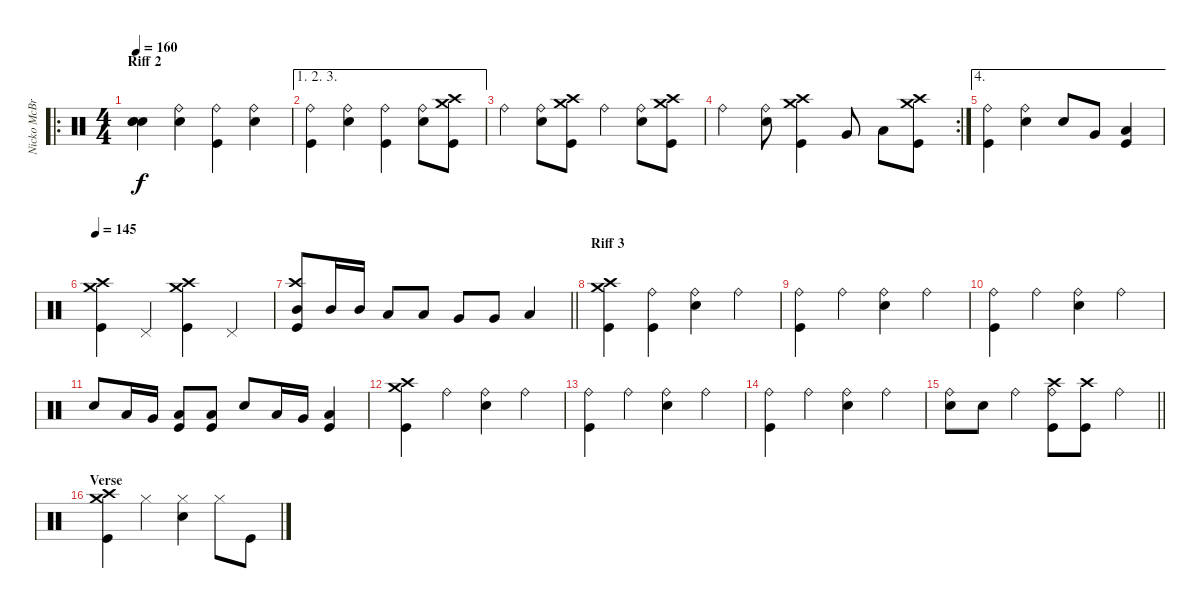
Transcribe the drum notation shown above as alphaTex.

\track ("Nicko McBrain" "Nicko McBr") {instrument percussion}
\staff {score}
\articulation defaults
\ro
\ts (4 4)
\section ("" "Riff 2")
\tempo 160
\clef neutral
\ks c
("Snare (hit)"{t} "Snare (hit)"{t} "Snare (hit)"{t}).4{dy f} ("Ride (bell)" "Snare (hit) 2").4 ("Ride (bell)" "Kick (hit)").4 ("Ride (bell)" "Snare (hit) 2").4 |
\ae (1 2 3)
("Ride (bell)" "Kick (hit)").4 ("Ride (bell)" "Snare (hit) 2").4 ("Ride (bell)" "Kick (hit)").4 ("Ride (bell)" "Snare (hit) 2").8 ("Crash medium (hit)" "Crash high (hit)" "Kick (hit)").8 |
"Ride (bell)".4 ("Ride (bell)" "Snare (hit) 2").8 ("Crash medium (hit)" "Crash high (hit)" "Kick (hit)").8 "Ride (bell)".4 ("Ride (bell)" "Snare (hit) 2").8 ("Crash medium (hit)" "Crash high (hit)" "Kick (hit)").8 |
\rc 2 "Ride (bell)".4
("Ride (bell)" "Snare (hit) 2").8 ("Crash medium (hit)" "Crash high (hit)" "Kick (hit)").4 "Very Low Tom (hit)".8 "Low Floor Tom (hit)".8 ("Crash medium (hit)" "Crash high (hit)" "Kick (hit)").8 |
\ae 4
("Ride (bell)" "Kick (hit)").4 ("Ride (bell)" "Snare (hit) 2").4 "Snare (hit) 2".8 "Very Low Tom (hit)".8 ("Low Floor Tom (hit)" "Kick (hit)").4 |
\tempo 145
("Crash medium (hit)" "Crash high (hit)" "Kick (hit)").4 "Pedal Hi-Hat (hit)".4 ("Crash medium (hit)" "Crash high (hit)" "Kick (hit)").4 "Pedal Hi-Hat (hit)".4 |
\barLineRight lightlight
("Mid Tom (hit)" "Crash high (hit)" "Kick (hit)").8 "Mid Tom (hit)".16 "Mid Tom (hit)".16 "Low Tom (hit)".8 "Low Tom (hit)".8 "Very Low Tom (hit)".8 "Very Low Tom (hit)".8 "Low Floor Tom (hit)".4 |
\section ("" "Riff 3")
("Crash medium (hit)" "Crash high (hit)" "Kick (hit)").4 ("Ride (bell)" "Kick (hit)").4 ("Ride (bell)" "Snare (hit) 2").4 "Ride (bell)".4 |
("Ride (bell)" "Kick (hit)").4 "Ride (bell)".4 ("Ride (bell)" "Snare (hit) 2").4 "Ride (bell)".4 |
("Ride (bell)" "Kick (hit)").4 "Ride (bell)".4 ("Ride (bell)" "Snare (hit) 2").4 "Ride (bell)".4 |
"Snare (hit) 2".8 "Low Tom (hit)".16 "Very Low Tom (hit)".16 ("Low Floor Tom (hit)" "Kick (hit)").8 ("Low Floor Tom (hit)" "Kick (hit)").8 "Snare (hit) 2".8 "Low Tom (hit)".16 "Very Low Tom (hit)".16 ("Low Floor Tom (hit)" "Kick (hit)").4 |
("Crash medium (hit)" "Crash high (hit)" "Kick (hit)").4 "Ride (bell)".4 ("Ride (bell)" "Snare (hit) 2").4 "Ride (bell)".4 |
("Ride (bell)" "Kick (hit)").4 "Ride (bell)".4 ("Ride (bell)" "Snare (hit) 2").4 "Ride (bell)".4 |
("Ride (bell)" "Kick (hit)").4 "Ride (bell)".4 ("Ride (bell)" "Snare (hit) 2").4 "Ride (bell)".4 |
\barLineRight lightlight
("Ride (bell)" "Snare (hit) 2").8 "Snare (hit) 2".8 "Ride (bell)".4 ("Ride (bell)" "Crash high (hit)" "Kick (hit)").8 ("Crash high (hit)" "Kick (hit)").8 "Ride (bell)".4 |
\section ("" "Verse")
("Crash medium (hit)" "Crash high (hit)" "Kick (hit)").4 "Hi-Hat (closed)".4 ("Hi-Hat (closed)" "Snare (hit) 2").4 "Hi-Hat (closed)".8 "Kick (hit)".8
